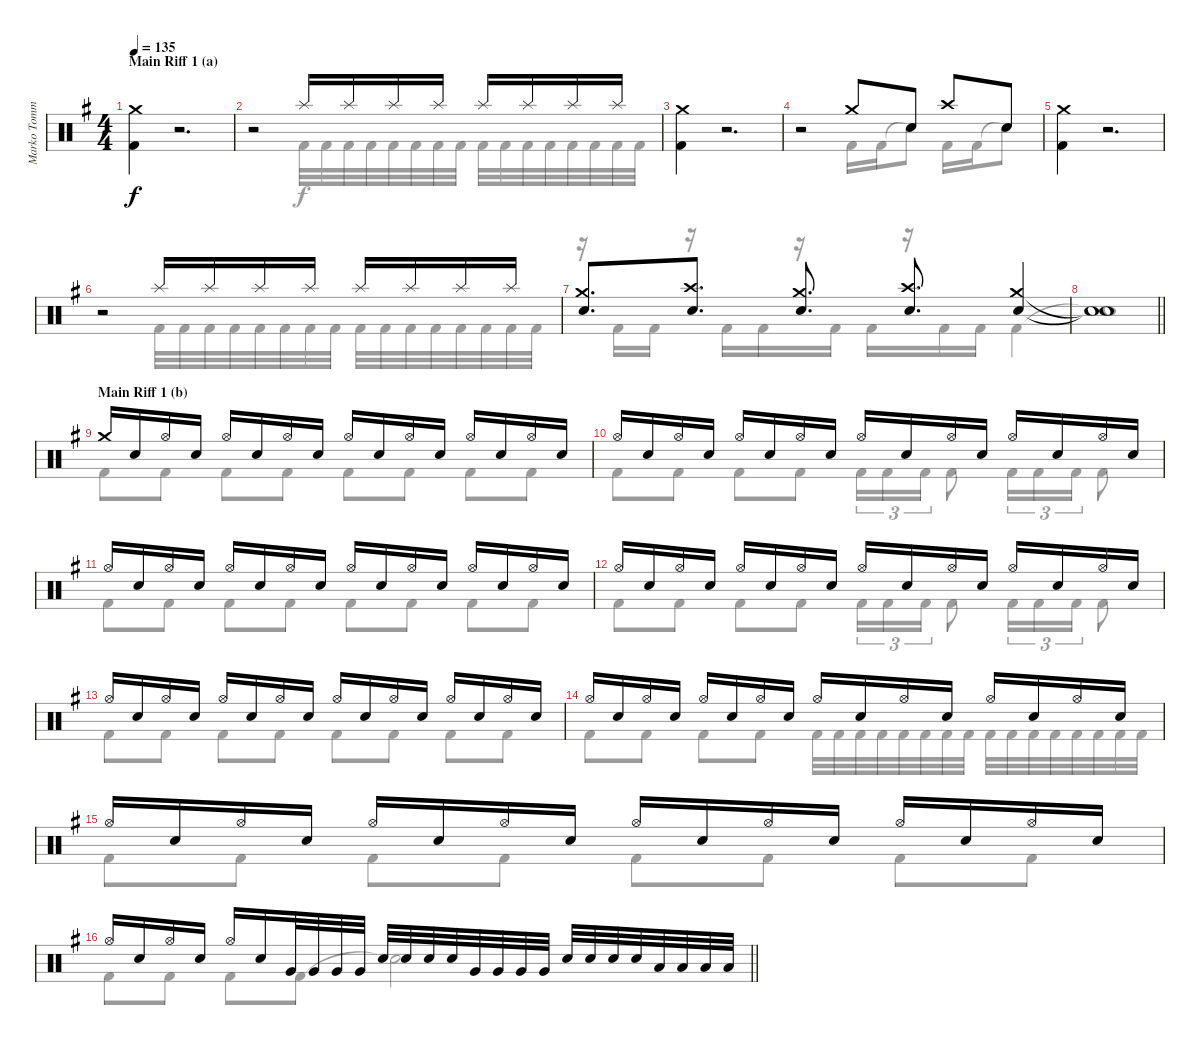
\track ("Marko Tommila (drums)" "Marko Tomm") {instrument percussion}
\staff {score}
\articulation defaults
\voice
\ts (4 4)
\section ("" "Main Riff 1 (a)")
\tempo 135
\clef neutral
\ks eminor
("Crash medium (hit)" "Kick (hit) 2").4{dy f} r.2{d} |
r.2 "Splash (hit)".16 "Splash (hit)".16 "Splash (hit)".16 "Splash (hit)".16 "Splash (hit)".16 "Splash (hit)".16 "Splash (hit)".16 "Splash (hit)".16 |
("Crash medium (hit)" "Kick (hit) 2").4 r.2{d} |
r.2 "Crash medium (hit)".8 "Electric Snare (hit)".8 "Crash high (hit)".8 "Electric Snare (hit)".8 |
("Crash medium (hit)" "Kick (hit) 2").4 r.2{d} |
r.2 "Splash (hit)".16 "Splash (hit)".16 "Splash (hit)".16 "Splash (hit)".16 "Splash (hit)".16 "Splash (hit)".16 "Splash (hit)".16 "Splash (hit)".16 |
("Crash medium (hit)" "Electric Snare (hit)").8{d} ("Crash high (hit)" "Electric Snare (hit)").8{d} ("Crash medium (hit)" "Electric Snare (hit)").8{d} ("Crash high (hit)" "Electric Snare (hit)").8{d} ("Crash medium (hit)" "Electric Snare (hit)").4 |
\barLineRight lightlight
("Snare (hit)"{t} "Snare (hit)"{t}).1 |
\section ("" "Main Riff 1 (b)")
"Crash medium (hit)".16 "Electric Snare (hit)".16 "Hi-Hat (open)".16 "Electric Snare (hit)".16 "Hi-Hat (open)".16 "Electric Snare (hit)".16 "Hi-Hat (open)".16 "Electric Snare (hit)".16 "Hi-Hat (open)".16 "Electric Snare (hit)".16 "Hi-Hat (open)".16 "Electric Snare (hit)".16 "Hi-Hat (open)".16 "Electric Snare (hit)".16 "Hi-Hat (open)".16 "Electric Snare (hit)".16 |
"Hi-Hat (open)".16 "Electric Snare (hit)".16 "Hi-Hat (open)".16 "Electric Snare (hit)".16 "Hi-Hat (open)".16 "Electric Snare (hit)".16 "Hi-Hat (open)".16 "Electric Snare (hit)".16 "Hi-Hat (open)".16 "Electric Snare (hit)".16 "Hi-Hat (open)".16 "Electric Snare (hit)".16 "Hi-Hat (open)".16 "Electric Snare (hit)".16 "Hi-Hat (open)".16 "Electric Snare (hit)".16 |
"Hi-Hat (open)".16 "Electric Snare (hit)".16 "Hi-Hat (open)".16 "Electric Snare (hit)".16 "Hi-Hat (open)".16 "Electric Snare (hit)".16 "Hi-Hat (open)".16 "Electric Snare (hit)".16 "Hi-Hat (open)".16 "Electric Snare (hit)".16 "Hi-Hat (open)".16 "Electric Snare (hit)".16 "Hi-Hat (open)".16 "Electric Snare (hit)".16 "Hi-Hat (open)".16 "Electric Snare (hit)".16 |
"Hi-Hat (open)".16 "Electric Snare (hit)".16 "Hi-Hat (open)".16 "Electric Snare (hit)".16 "Hi-Hat (open)".16 "Electric Snare (hit)".16 "Hi-Hat (open)".16 "Electric Snare (hit)".16 "Hi-Hat (open)".16 "Electric Snare (hit)".16 "Hi-Hat (open)".16 "Electric Snare (hit)".16 "Hi-Hat (open)".16 "Electric Snare (hit)".16 "Hi-Hat (open)".16 "Electric Snare (hit)".16 |
"Hi-Hat (open)".16 "Electric Snare (hit)".16 "Hi-Hat (open)".16 "Electric Snare (hit)".16 "Hi-Hat (open)".16 "Electric Snare (hit)".16 "Hi-Hat (open)".16 "Electric Snare (hit)".16 "Hi-Hat (open)".16 "Electric Snare (hit)".16 "Hi-Hat (open)".16 "Electric Snare (hit)".16 "Hi-Hat (open)".16 "Electric Snare (hit)".16 "Hi-Hat (open)".16 "Electric Snare (hit)".16 |
"Hi-Hat (open)".16 "Electric Snare (hit)".16 "Hi-Hat (open)".16 "Electric Snare (hit)".16 "Hi-Hat (open)".16 "Electric Snare (hit)".16 "Hi-Hat (open)".16 "Electric Snare (hit)".16 "Hi-Hat (open)".16 "Electric Snare (hit)".16 "Hi-Hat (open)".16 "Electric Snare (hit)".16 "Hi-Hat (open)".16 "Electric Snare (hit)".16 "Hi-Hat (open)".16 "Electric Snare (hit)".16 |
"Hi-Hat (open)".16 "Electric Snare (hit)".16 "Hi-Hat (open)".16 "Electric Snare (hit)".16 "Hi-Hat (open)".16 "Electric Snare (hit)".16 "Hi-Hat (open)".16 "Electric Snare (hit)".16 "Hi-Hat (open)".16 "Electric Snare (hit)".16 "Hi-Hat (open)".16 "Electric Snare (hit)".16 "Hi-Hat (open)".16 "Electric Snare (hit)".16 "Hi-Hat (open)".16 "Electric Snare (hit)".16 |
\barLineRight lightlight "Hi-Hat (open)".16 "Electric Snare (hit)".16 "Hi-Hat (open)".16 "Electric Snare (hit)".16 "Hi-Hat (open)".16 "Electric Snare (hit)".16 "Very Low Tom (hit)".32 "Very Low Tom (hit)".32 "Very Low Tom (hit)".32 "Very Low Tom (hit)".32 "Electric Snare (hit)".32 "Electric Snare (hit)".32 "Electric Snare (hit)".32 "Electric Snare (hit)".32 "Very Low Tom (hit)".32 "Very Low Tom (hit)".32 "Very Low Tom (hit)".32 "Very Low Tom (hit)".32 "Electric Snare (hit)".32 "Electric Snare (hit)".32 "Electric Snare (hit)".32 "Electric Snare (hit)".32 "Low Tom (hit)".32 "Low Tom (hit)".32 "Low Tom (hit)".32 "Low Tom (hit)".32
\voice
\clef neutral
\ottava regular
\simile none
\ks eminor
|
r.2 "Kick (hit) 2".32 "Kick (hit) 2".32 "Kick (hit) 2".32 "Kick (hit) 2".32 "Kick (hit) 2".32 "Kick (hit) 2".32 "Kick (hit) 2".32 "Kick (hit) 2".32 "Kick (hit) 2".32 "Kick (hit) 2".32 "Kick (hit) 2".32 "Kick (hit) 2".32 "Kick (hit) 2".32 "Kick (hit) 2".32 "Kick (hit) 2".32 "Kick (hit) 2".32 |
|
r.2 "Kick (hit) 2".16 "Kick (hit) 2".16 "Snare (hit)"{t}.8 "Kick (hit) 2".16 "Kick (hit) 2".16 "Snare (hit)"{t}.8 |
|
r.2 "Kick (hit) 2".32 "Kick (hit) 2".32 "Kick (hit) 2".32 "Kick (hit) 2".32 "Kick (hit) 2".32 "Kick (hit) 2".32 "Kick (hit) 2".32 "Kick (hit) 2".32 "Kick (hit) 2".32 "Kick (hit) 2".32 "Kick (hit) 2".32 "Kick (hit) 2".32 "Kick (hit) 2".32 "Kick (hit) 2".32 "Kick (hit) 2".32 "Kick (hit) 2".32 |
r.16 "Kick (hit) 2".16 "Kick (hit) 2".16 r.16 "Kick (hit) 2".16 "Kick (hit) 2".16 r.16 "Kick (hit) 2".16 "Kick (hit) 2".16 r.16 "Kick (hit) 2".16 "Kick (hit) 2".16 "Kick (hit) 2".4 |
\barLineRight lightlight "Snare (hit)"{t}.1
|
"Kick (hit) 2".8 "Kick (hit) 2".8 "Kick (hit) 2".8 "Kick (hit) 2".8 "Kick (hit) 2".8 "Kick (hit) 2".8 "Kick (hit) 2".8 "Kick (hit) 2".8 |
"Kick (hit) 2".8 "Kick (hit) 2".8 "Kick (hit) 2".8 "Kick (hit) 2".8 "Kick (hit) 2".16{tu (3 2)} "Kick (hit) 2".16{tu (3 2)} "Kick (hit) 2".16{tu (3 2)} "Kick (hit) 2".8 "Kick (hit) 2".16{tu (3 2)} "Kick (hit) 2".16{tu (3 2)} "Kick (hit) 2".16{tu (3 2)} "Kick (hit) 2".8 |
"Kick (hit) 2".8 "Kick (hit) 2".8 "Kick (hit) 2".8 "Kick (hit) 2".8 "Kick (hit) 2".8 "Kick (hit) 2".8 "Kick (hit) 2".8 "Kick (hit) 2".8 |
"Kick (hit) 2".8 "Kick (hit) 2".8 "Kick (hit) 2".8 "Kick (hit) 2".8 "Kick (hit) 2".16{tu (3 2)} "Kick (hit) 2".16{tu (3 2)} "Kick (hit) 2".16{tu (3 2)} "Kick (hit) 2".8 "Kick (hit) 2".16{tu (3 2)} "Kick (hit) 2".16{tu (3 2)} "Kick (hit) 2".16{tu (3 2)} "Kick (hit) 2".8 |
"Kick (hit) 2".8 "Kick (hit) 2".8 "Kick (hit) 2".8 "Kick (hit) 2".8 "Kick (hit) 2".8 "Kick (hit) 2".8 "Kick (hit) 2".8 "Kick (hit) 2".8 |
"Kick (hit) 2".8 "Kick (hit) 2".8 "Kick (hit) 2".8 "Kick (hit) 2".8 "Kick (hit) 2".32 "Kick (hit) 2".32 "Kick (hit) 2".32 "Kick (hit) 2".32 "Kick (hit) 2".32 "Kick (hit) 2".32 "Kick (hit) 2".32 "Kick (hit) 2".32 "Kick (hit) 2".32 "Kick (hit) 2".32 "Kick (hit) 2".32 "Kick (hit) 2".32 "Kick (hit) 2".32 "Kick (hit) 2".32 "Kick (hit) 2".32 "Kick (hit) 2".32 |
"Kick (hit) 2".8 "Kick (hit) 2".8 "Kick (hit) 2".8 "Kick (hit) 2".8 "Kick (hit) 2".8 "Kick (hit) 2".8 "Kick (hit) 2".8 "Kick (hit) 2".8 |
\barLineRight lightlight "Kick (hit) 2".8 "Kick (hit) 2".8 "Kick (hit) 2".8 "Kick (hit) 2".8 "Snare (hit)"{t}.2
